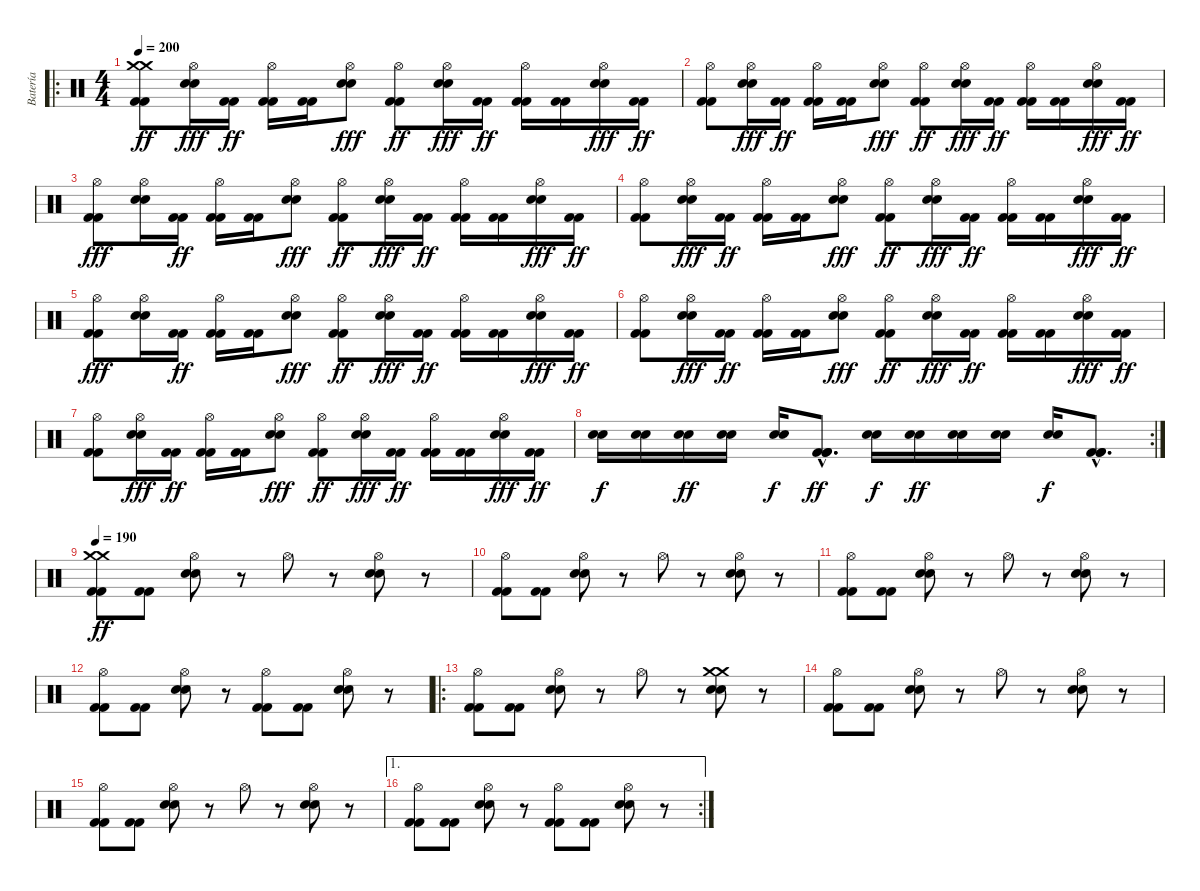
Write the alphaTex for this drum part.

\track ("Batería" "Batería") {instrument percussion}
\staff {score}
\articulation defaults
\ro
\ts (4 4)
\tempo 200
\clef neutral
\ks c
("Crash medium (hit)" "Crash medium (hit)" "Kick (hit) 2" "Kick (hit) 2").8{dy ff} ("Hi-Hat (open)" "Electric Snare (hit)" "Electric Snare (hit)").16{dy fff} ("Kick (hit) 2" "Kick (hit) 2").16{dy ff} ("Hi-Hat (open)" "Kick (hit) 2" "Kick (hit) 2").16 ("Kick (hit) 2" "Kick (hit) 2").16 ("Hi-Hat (open)" "Electric Snare (hit)" "Electric Snare (hit)").8{dy fff} ("Hi-Hat (open)" "Kick (hit) 2" "Kick (hit) 2").8{dy ff} ("Hi-Hat (open)" "Electric Snare (hit)" "Electric Snare (hit)").16{dy fff} ("Kick (hit) 2" "Kick (hit) 2").16{dy ff} ("Hi-Hat (open)" "Kick (hit) 2" "Kick (hit) 2").16 ("Kick (hit) 2" "Kick (hit) 2").16 ("Hi-Hat (open)" "Electric Snare (hit)" "Electric Snare (hit)").16{dy fff} ("Kick (hit) 2" "Kick (hit) 2").16{dy ff} |
("Hi-Hat (open)" "Kick (hit) 2" "Kick (hit) 2").8 ("Hi-Hat (open)" "Electric Snare (hit)" "Electric Snare (hit)").16{dy fff} ("Kick (hit) 2" "Kick (hit) 2").16{dy ff} ("Hi-Hat (open)" "Kick (hit) 2" "Kick (hit) 2").16 ("Kick (hit) 2" "Kick (hit) 2").16 ("Hi-Hat (open)" "Electric Snare (hit)" "Electric Snare (hit)").8{dy fff} ("Hi-Hat (open)" "Kick (hit) 2" "Kick (hit) 2").8{dy ff} ("Hi-Hat (open)" "Electric Snare (hit)" "Electric Snare (hit)").16{dy fff} ("Kick (hit) 2" "Kick (hit) 2").16{dy ff} ("Hi-Hat (open)" "Kick (hit) 2" "Kick (hit) 2").16 ("Kick (hit) 2" "Kick (hit) 2").16 ("Hi-Hat (open)" "Electric Snare (hit)" "Electric Snare (hit)").16{dy fff} ("Kick (hit) 2" "Kick (hit) 2").16{dy ff} |
("Hi-Hat (open)" "Kick (hit) 2" "Kick (hit) 2").8{dy fff} ("Hi-Hat (open)" "Electric Snare (hit)" "Electric Snare (hit)").16 ("Kick (hit) 2" "Kick (hit) 2").16{dy ff} ("Hi-Hat (open)" "Kick (hit) 2" "Kick (hit) 2").16 ("Kick (hit) 2" "Kick (hit) 2").16 ("Hi-Hat (open)" "Electric Snare (hit)" "Electric Snare (hit)").8{dy fff} ("Hi-Hat (open)" "Kick (hit) 2" "Kick (hit) 2").8{dy ff} ("Hi-Hat (open)" "Electric Snare (hit)" "Electric Snare (hit)").16{dy fff} ("Kick (hit) 2" "Kick (hit) 2").16{dy ff} ("Hi-Hat (open)" "Kick (hit) 2" "Kick (hit) 2").16 ("Kick (hit) 2" "Kick (hit) 2").16 ("Hi-Hat (open)" "Electric Snare (hit)" "Electric Snare (hit)").16{dy fff} ("Kick (hit) 2" "Kick (hit) 2").16{dy ff} |
("Hi-Hat (open)" "Kick (hit) 2" "Kick (hit) 2").8 ("Hi-Hat (open)" "Electric Snare (hit)" "Electric Snare (hit)").16{dy fff} ("Kick (hit) 2" "Kick (hit) 2").16{dy ff} ("Hi-Hat (open)" "Kick (hit) 2" "Kick (hit) 2").16 ("Kick (hit) 2" "Kick (hit) 2").16 ("Hi-Hat (open)" "Electric Snare (hit)" "Electric Snare (hit)").8{dy fff} ("Hi-Hat (open)" "Kick (hit) 2" "Kick (hit) 2").8{dy ff} ("Hi-Hat (open)" "Electric Snare (hit)" "Electric Snare (hit)").16{dy fff} ("Kick (hit) 2" "Kick (hit) 2").16{dy ff} ("Hi-Hat (open)" "Kick (hit) 2" "Kick (hit) 2").16 ("Kick (hit) 2" "Kick (hit) 2").16 ("Hi-Hat (open)" "Electric Snare (hit)" "Electric Snare (hit)").16{dy fff} ("Kick (hit) 2" "Kick (hit) 2").16{dy ff} |
("Hi-Hat (open)" "Kick (hit) 2" "Kick (hit) 2").8{dy fff} ("Hi-Hat (open)" "Electric Snare (hit)" "Electric Snare (hit)").16 ("Kick (hit) 2" "Kick (hit) 2").16{dy ff} ("Hi-Hat (open)" "Kick (hit) 2" "Kick (hit) 2").16 ("Kick (hit) 2" "Kick (hit) 2").16 ("Hi-Hat (open)" "Electric Snare (hit)" "Electric Snare (hit)").8{dy fff} ("Hi-Hat (open)" "Kick (hit) 2" "Kick (hit) 2").8{dy ff} ("Hi-Hat (open)" "Electric Snare (hit)" "Electric Snare (hit)").16{dy fff} ("Kick (hit) 2" "Kick (hit) 2").16{dy ff} ("Hi-Hat (open)" "Kick (hit) 2" "Kick (hit) 2").16 ("Kick (hit) 2" "Kick (hit) 2").16 ("Hi-Hat (open)" "Electric Snare (hit)" "Electric Snare (hit)").16{dy fff} ("Kick (hit) 2" "Kick (hit) 2").16{dy ff} |
("Hi-Hat (open)" "Kick (hit) 2" "Kick (hit) 2").8 ("Hi-Hat (open)" "Electric Snare (hit)" "Electric Snare (hit)").16{dy fff} ("Kick (hit) 2" "Kick (hit) 2").16{dy ff} ("Hi-Hat (open)" "Kick (hit) 2" "Kick (hit) 2").16 ("Kick (hit) 2" "Kick (hit) 2").16 ("Hi-Hat (open)" "Electric Snare (hit)" "Electric Snare (hit)").8{dy fff} ("Hi-Hat (open)" "Kick (hit) 2" "Kick (hit) 2").8{dy ff} ("Hi-Hat (open)" "Electric Snare (hit)" "Electric Snare (hit)").16{dy fff} ("Kick (hit) 2" "Kick (hit) 2").16{dy ff} ("Hi-Hat (open)" "Kick (hit) 2" "Kick (hit) 2").16 ("Kick (hit) 2" "Kick (hit) 2").16 ("Hi-Hat (open)" "Electric Snare (hit)" "Electric Snare (hit)").16{dy fff} ("Kick (hit) 2" "Kick (hit) 2").16{dy ff} |
("Hi-Hat (open)" "Kick (hit) 2" "Kick (hit) 2").8 ("Hi-Hat (open)" "Electric Snare (hit)" "Electric Snare (hit)").16{dy fff} ("Kick (hit) 2" "Kick (hit) 2").16{dy ff} ("Hi-Hat (open)" "Kick (hit) 2" "Kick (hit) 2").16 ("Kick (hit) 2" "Kick (hit) 2").16 ("Hi-Hat (open)" "Electric Snare (hit)" "Electric Snare (hit)").8{dy fff} ("Hi-Hat (open)" "Kick (hit) 2" "Kick (hit) 2").8{dy ff} ("Hi-Hat (open)" "Electric Snare (hit)" "Electric Snare (hit)").16{dy fff} ("Kick (hit) 2" "Kick (hit) 2").16{dy ff} ("Hi-Hat (open)" "Kick (hit) 2" "Kick (hit) 2").16 ("Kick (hit) 2" "Kick (hit) 2").16 ("Hi-Hat (open)" "Electric Snare (hit)" "Electric Snare (hit)").16{dy fff} ("Kick (hit) 2" "Kick (hit) 2").16{dy ff} |
\rc 2
("Electric Snare (hit)" "Electric Snare (hit)").16{dy f} ("Electric Snare (hit)" "Electric Snare (hit)").16 ("Electric Snare (hit)" "Electric Snare (hit)").16{dy ff} ("Electric Snare (hit)" "Electric Snare (hit)").16 ("Electric Snare (hit)" "Electric Snare (hit)").16{dy f} ("Kick (hit) 2"{hac} "Kick (hit) 2"{hac} "Kick (hit) 2"{hac}).8{d dy ff} ("Electric Snare (hit)" "Electric Snare (hit)").16{dy f} ("Electric Snare (hit)" "Electric Snare (hit)").16{dy ff} ("Electric Snare (hit)" "Electric Snare (hit)").16 ("Electric Snare (hit)" "Electric Snare (hit)").16 ("Electric Snare (hit)" "Electric Snare (hit)").16{dy f} ("Kick (hit) 2"{hac} "Kick (hit) 2"{hac} "Kick (hit) 2"{hac}).8{d} |
\tempo 190
("Crash medium (hit)" "Crash medium (hit)" "Kick (hit) 2" "Kick (hit) 2").8{dy ff} ("Kick (hit) 2" "Kick (hit) 2").8 ("Hi-Hat (open)" "Electric Snare (hit)" "Electric Snare (hit)").8 r.8 "Hi-Hat (open)".8 r.8 ("Hi-Hat (open)" "Electric Snare (hit)" "Electric Snare (hit)").8 r.8 |
("Hi-Hat (open)" "Kick (hit) 2" "Kick (hit) 2").8 ("Kick (hit) 2" "Kick (hit) 2").8 ("Hi-Hat (open)" "Electric Snare (hit)" "Electric Snare (hit)").8 r.8 "Hi-Hat (open)".8 r.8 ("Hi-Hat (open)" "Electric Snare (hit)" "Electric Snare (hit)").8 r.8 |
("Hi-Hat (open)" "Kick (hit) 2" "Kick (hit) 2").8 ("Kick (hit) 2" "Kick (hit) 2").8 ("Hi-Hat (open)" "Electric Snare (hit)" "Electric Snare (hit)").8 r.8 "Hi-Hat (open)".8 r.8 ("Hi-Hat (open)" "Electric Snare (hit)" "Electric Snare (hit)").8 r.8 |
("Hi-Hat (open)" "Kick (hit) 2" "Kick (hit) 2").8 ("Kick (hit) 2" "Kick (hit) 2").8 ("Hi-Hat (open)" "Electric Snare (hit)" "Electric Snare (hit)").8 r.8 ("Hi-Hat (open)" "Kick (hit) 2" "Kick (hit) 2").8 ("Kick (hit) 2" "Kick (hit) 2").8 ("Hi-Hat (open)" "Electric Snare (hit)" "Electric Snare (hit)").8 r.8 |
\ro
("Hi-Hat (open)" "Kick (hit) 2" "Kick (hit) 2").8 ("Kick (hit) 2" "Kick (hit) 2").8 ("Hi-Hat (open)" "Electric Snare (hit)" "Electric Snare (hit)").8 r.8 "Hi-Hat (open)".8 r.8 ("Crash medium (hit)" "Crash medium (hit)" "Electric Snare (hit)" "Electric Snare (hit)").8 r.8 |
("Hi-Hat (open)" "Kick (hit) 2" "Kick (hit) 2").8 ("Kick (hit) 2" "Kick (hit) 2").8 ("Hi-Hat (open)" "Electric Snare (hit)" "Electric Snare (hit)").8 r.8 "Hi-Hat (open)".8 r.8 ("Hi-Hat (open)" "Electric Snare (hit)" "Electric Snare (hit)").8 r.8 |
("Hi-Hat (open)" "Kick (hit) 2" "Kick (hit) 2").8 ("Kick (hit) 2" "Kick (hit) 2").8 ("Hi-Hat (open)" "Electric Snare (hit)" "Electric Snare (hit)").8 r.8 "Hi-Hat (open)".8 r.8 ("Hi-Hat (open)" "Electric Snare (hit)" "Electric Snare (hit)").8 r.8 |
\ae 1
\rc 2
("Hi-Hat (open)" "Kick (hit) 2" "Kick (hit) 2").8 ("Kick (hit) 2" "Kick (hit) 2").8 ("Hi-Hat (open)" "Electric Snare (hit)" "Electric Snare (hit)").8 r.8 ("Hi-Hat (open)" "Kick (hit) 2" "Kick (hit) 2").8 ("Kick (hit) 2" "Kick (hit) 2").8 ("Hi-Hat (open)" "Electric Snare (hit)" "Electric Snare (hit)").8 r.8
